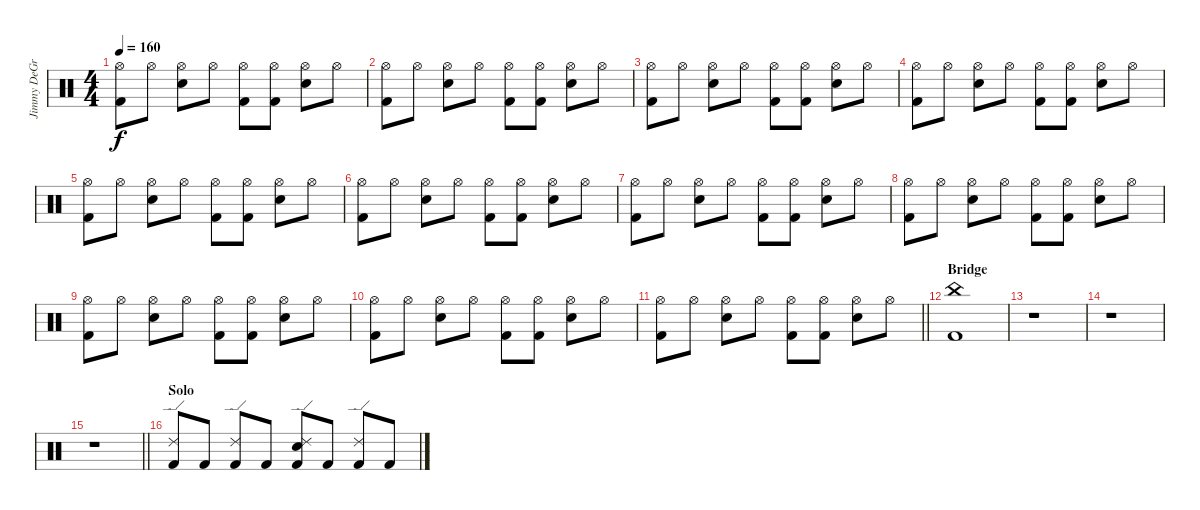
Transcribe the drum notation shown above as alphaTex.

\track ("Jimmy DeGrasso" "Jimmy DeGr") {instrument percussion}
\staff {score}
\articulation defaults
\ts (4 4)
\tempo 160
\clef neutral
\ks c
("Hi-Hat (open)" "Kick (hit) 2").8{dy f} "Hi-Hat (open)".8 ("Hi-Hat (open)" "Snare (hit) 2").8 "Hi-Hat (open)".8 ("Hi-Hat (open)" "Kick (hit) 2").8 ("Hi-Hat (open)" "Kick (hit) 2").8 ("Hi-Hat (open)" "Snare (hit) 2").8 "Hi-Hat (open)".8 |
("Hi-Hat (open)" "Kick (hit) 2").8 "Hi-Hat (open)".8 ("Hi-Hat (open)" "Snare (hit) 2").8 "Hi-Hat (open)".8 ("Hi-Hat (open)" "Kick (hit) 2").8 ("Hi-Hat (open)" "Kick (hit) 2").8 ("Hi-Hat (open)" "Snare (hit) 2").8 "Hi-Hat (open)".8 |
("Hi-Hat (open)" "Kick (hit) 2").8 "Hi-Hat (open)".8 ("Hi-Hat (open)" "Snare (hit) 2").8 "Hi-Hat (open)".8 ("Hi-Hat (open)" "Kick (hit) 2").8 ("Hi-Hat (open)" "Kick (hit) 2").8 ("Hi-Hat (open)" "Snare (hit) 2").8 "Hi-Hat (open)".8 |
("Hi-Hat (open)" "Kick (hit) 2").8 "Hi-Hat (open)".8 ("Hi-Hat (open)" "Snare (hit) 2").8 "Hi-Hat (open)".8 ("Hi-Hat (open)" "Kick (hit) 2").8 ("Hi-Hat (open)" "Kick (hit) 2").8 ("Hi-Hat (open)" "Snare (hit) 2").8 "Hi-Hat (open)".8 |
("Hi-Hat (open)" "Kick (hit) 2").8 "Hi-Hat (open)".8 ("Hi-Hat (open)" "Snare (hit) 2").8 "Hi-Hat (open)".8 ("Hi-Hat (open)" "Kick (hit) 2").8 ("Hi-Hat (open)" "Kick (hit) 2").8 ("Hi-Hat (open)" "Snare (hit) 2").8 "Hi-Hat (open)".8 |
("Hi-Hat (open)" "Kick (hit) 2").8 "Hi-Hat (open)".8 ("Hi-Hat (open)" "Snare (hit) 2").8 "Hi-Hat (open)".8 ("Hi-Hat (open)" "Kick (hit) 2").8 ("Hi-Hat (open)" "Kick (hit) 2").8 ("Hi-Hat (open)" "Snare (hit) 2").8 "Hi-Hat (open)".8 |
("Hi-Hat (open)" "Kick (hit) 2").8 "Hi-Hat (open)".8 ("Hi-Hat (open)" "Snare (hit) 2").8 "Hi-Hat (open)".8 ("Hi-Hat (open)" "Kick (hit) 2").8 ("Hi-Hat (open)" "Kick (hit) 2").8 ("Hi-Hat (open)" "Snare (hit) 2").8 "Hi-Hat (open)".8 |
("Hi-Hat (open)" "Kick (hit) 2").8 "Hi-Hat (open)".8 ("Hi-Hat (open)" "Snare (hit) 2").8 "Hi-Hat (open)".8 ("Hi-Hat (open)" "Kick (hit) 2").8 ("Hi-Hat (open)" "Kick (hit) 2").8 ("Hi-Hat (open)" "Snare (hit) 2").8 "Hi-Hat (open)".8 |
("Hi-Hat (open)" "Kick (hit) 2").8 "Hi-Hat (open)".8 ("Hi-Hat (open)" "Snare (hit) 2").8 "Hi-Hat (open)".8 ("Hi-Hat (open)" "Kick (hit) 2").8 ("Hi-Hat (open)" "Kick (hit) 2").8 ("Hi-Hat (open)" "Snare (hit) 2").8 "Hi-Hat (open)".8 |
("Hi-Hat (open)" "Kick (hit) 2").8 "Hi-Hat (open)".8 ("Hi-Hat (open)" "Snare (hit) 2").8 "Hi-Hat (open)".8 ("Hi-Hat (open)" "Kick (hit) 2").8 ("Hi-Hat (open)" "Kick (hit) 2").8 ("Hi-Hat (open)" "Snare (hit) 2").8 "Hi-Hat (open)".8 |
\barLineRight lightlight
("Hi-Hat (open)" "Kick (hit) 2").8 "Hi-Hat (open)".8 ("Hi-Hat (open)" "Snare (hit) 2").8 "Hi-Hat (open)".8 ("Hi-Hat (open)" "Kick (hit) 2").8 ("Hi-Hat (open)" "Kick (hit) 2").8 ("Hi-Hat (open)" "Snare (hit) 2").8 "Hi-Hat (open)".8 |
\section ("" "Bridge")
("China (hit)" "Kick (hit) 2").1 |
r.1 |
r.1 |
\barLineRight lightlight
r.1 |
\section ("" "Solo")
("Ride (edge) 2" "Kick (hit) 2").8 "Kick (hit) 2".8 ("Ride (edge) 2" "Kick (hit) 2").8 "Kick (hit) 2".8 ("Ride (edge) 2" "Snare (hit) 2" "Kick (hit) 2").8 "Kick (hit) 2".8 ("Ride (edge) 2" "Kick (hit) 2").8 "Kick (hit) 2".8
